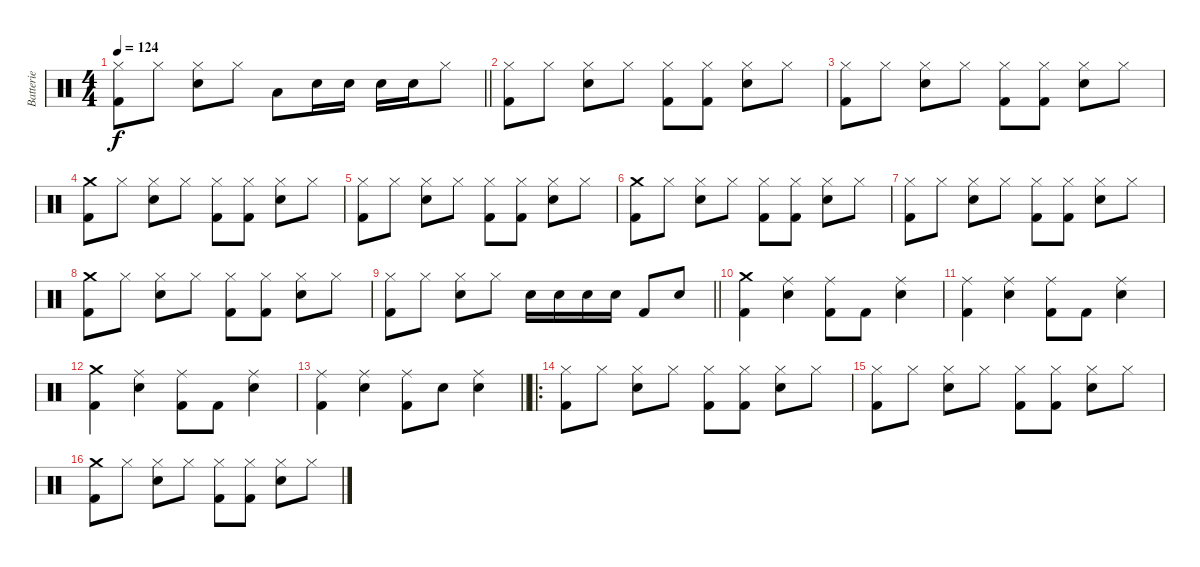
\track ("Batterie" "Batterie") {instrument percussion}
\staff {score}
\articulation defaults
\ts (4 4)
\tempo 124
\clef neutral
\barLineRight lightlight
\ks c
("Hi-Hat (closed)" "Kick (hit) 2").8{dy f} "Hi-Hat (closed)".8 ("Hi-Hat (closed)" "Snare (hit) 2").8 "Hi-Hat (closed)".8 "Low Tom (hit)".8 "Snare (hit) 2".16 "Snare (hit) 2".16 "Snare (hit) 2".16 "Snare (hit) 2".16 "Hi-Hat (closed)".8 |
("Hi-Hat (closed)" "Kick (hit) 2").8 "Hi-Hat (closed)".8 ("Hi-Hat (closed)" "Snare (hit) 2").8 "Hi-Hat (closed)".8 ("Hi-Hat (closed)" "Kick (hit) 2").8 ("Hi-Hat (closed)" "Kick (hit) 2").8 ("Hi-Hat (closed)" "Snare (hit) 2").8 "Hi-Hat (closed)".8 |
("Hi-Hat (closed)" "Kick (hit) 2").8 "Hi-Hat (closed)".8 ("Hi-Hat (closed)" "Snare (hit) 2").8 "Hi-Hat (closed)".8 ("Hi-Hat (closed)" "Kick (hit) 2").8 ("Hi-Hat (closed)" "Kick (hit) 2").8 ("Hi-Hat (closed)" "Snare (hit) 2").8 "Hi-Hat (closed)".8 |
("Crash medium (hit)" "Kick (hit) 2").8 "Hi-Hat (closed)".8 ("Hi-Hat (closed)" "Snare (hit) 2").8 "Hi-Hat (closed)".8 ("Hi-Hat (closed)" "Kick (hit) 2").8 ("Hi-Hat (closed)" "Kick (hit) 2").8 ("Hi-Hat (closed)" "Snare (hit) 2").8 "Hi-Hat (closed)".8 |
("Hi-Hat (closed)" "Kick (hit) 2").8 "Hi-Hat (closed)".8 ("Hi-Hat (closed)" "Snare (hit) 2").8 "Hi-Hat (closed)".8 ("Hi-Hat (closed)" "Kick (hit) 2").8 ("Hi-Hat (closed)" "Kick (hit) 2").8 ("Hi-Hat (closed)" "Snare (hit) 2").8 "Hi-Hat (closed)".8 |
("Crash medium (hit)" "Kick (hit) 2").8 "Hi-Hat (closed)".8 ("Hi-Hat (closed)" "Snare (hit) 2").8 "Hi-Hat (closed)".8 ("Hi-Hat (closed)" "Kick (hit) 2").8 ("Hi-Hat (closed)" "Kick (hit) 2").8 ("Hi-Hat (closed)" "Snare (hit) 2").8 "Hi-Hat (closed)".8 |
("Hi-Hat (closed)" "Kick (hit) 2").8 "Hi-Hat (closed)".8 ("Hi-Hat (closed)" "Snare (hit) 2").8 "Hi-Hat (closed)".8 ("Hi-Hat (closed)" "Kick (hit) 2").8 ("Hi-Hat (closed)" "Kick (hit) 2").8 ("Hi-Hat (closed)" "Snare (hit) 2").8 "Hi-Hat (closed)".8 |
("Crash medium (hit)" "Kick (hit) 2").8 "Hi-Hat (closed)".8 ("Hi-Hat (closed)" "Snare (hit) 2").8 "Hi-Hat (closed)".8 ("Hi-Hat (closed)" "Kick (hit) 2").8 ("Hi-Hat (closed)" "Kick (hit) 2").8 ("Hi-Hat (closed)" "Snare (hit) 2").8 "Hi-Hat (closed)".8 |
\barLineRight lightlight
("Hi-Hat (closed)" "Kick (hit) 2").8 "Hi-Hat (closed)".8 ("Hi-Hat (closed)" "Snare (hit) 2").8 "Hi-Hat (closed)".8 "Snare (hit) 2".16 "Snare (hit) 2".16 "Snare (hit) 2".16 "Snare (hit) 2".16 "Kick (hit) 2".8 "Snare (hit) 2".8 |
("Crash medium (hit)" "Kick (hit) 2").4 ("Ride (middle)" "Snare (hit) 2").4 ("Ride (middle)" "Kick (hit) 2").8 "Kick (hit) 2".8 ("Ride (middle)" "Snare (hit) 2").4 |
("Ride (middle)" "Kick (hit) 2").4 ("Ride (middle)" "Snare (hit) 2").4 ("Ride (middle)" "Kick (hit) 2").8 "Kick (hit) 2".8 ("Ride (middle)" "Snare (hit) 2").4 |
("Crash medium (hit)" "Kick (hit) 2").4 ("Ride (middle)" "Snare (hit) 2").4 ("Ride (middle)" "Kick (hit) 2").8 "Kick (hit) 2".8 ("Ride (middle)" "Snare (hit) 2").4 |
\barLineRight lightlight
("Ride (middle)" "Kick (hit) 2").4 ("Ride (middle)" "Snare (hit) 2").4 ("Ride (middle)" "Kick (hit) 2").8 "Snare (hit) 2".8 ("Ride (middle)" "Snare (hit) 2").4 |
\ro
("Hi-Hat (closed)" "Kick (hit) 2").8 "Hi-Hat (closed)".8 ("Hi-Hat (closed)" "Snare (hit) 2").8 "Hi-Hat (closed)".8 ("Hi-Hat (closed)" "Kick (hit) 2").8 ("Hi-Hat (closed)" "Kick (hit) 2").8 ("Hi-Hat (closed)" "Snare (hit) 2").8 "Hi-Hat (closed)".8 |
("Hi-Hat (closed)" "Kick (hit) 2").8 "Hi-Hat (closed)".8 ("Hi-Hat (closed)" "Snare (hit) 2").8 "Hi-Hat (closed)".8 ("Hi-Hat (closed)" "Kick (hit) 2").8 ("Hi-Hat (closed)" "Kick (hit) 2").8 ("Hi-Hat (closed)" "Snare (hit) 2").8 "Hi-Hat (closed)".8 |
("Crash medium (hit)" "Kick (hit) 2").8 "Hi-Hat (closed)".8 ("Hi-Hat (closed)" "Snare (hit) 2").8 "Hi-Hat (closed)".8 ("Hi-Hat (closed)" "Kick (hit) 2").8 ("Hi-Hat (closed)" "Kick (hit) 2").8 ("Hi-Hat (closed)" "Snare (hit) 2").8 "Hi-Hat (closed)".8
